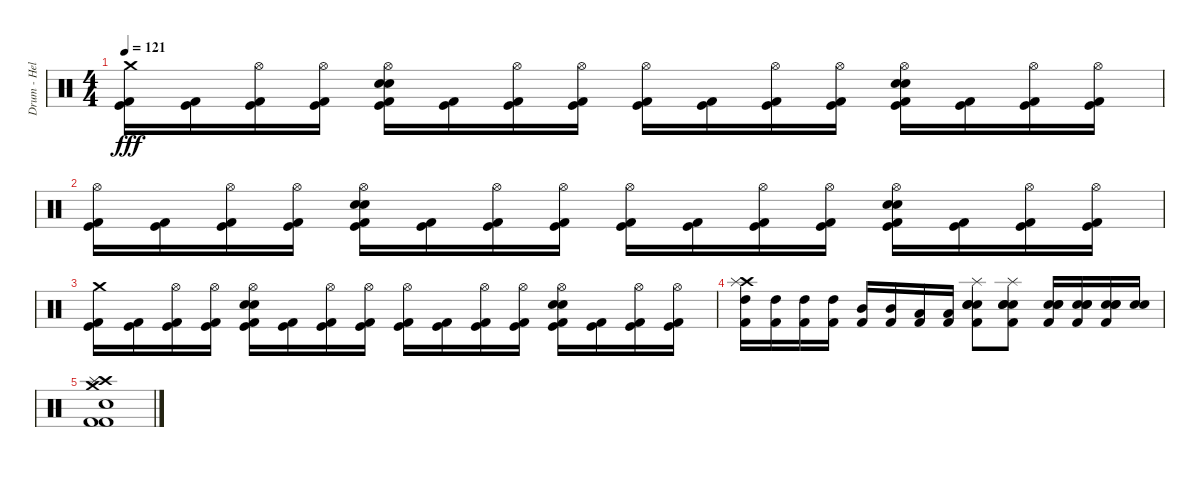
\track ("Drum - Hellhammer" "Drum - Hel") {instrument percussion}
\staff {score}
\articulation defaults
\ts (4 4)
\tempo 121
\clef neutral
\ks c
("Crash medium (hit)" "Kick (hit) 2" "Kick (hit)").16{dy fff} ("Kick (hit) 2" "Kick (hit)").16 ("Hi-Hat (open)" "Kick (hit) 2" "Kick (hit)").16 ("Hi-Hat (open)" "Kick (hit) 2" "Kick (hit)").16 ("Hi-Hat (open)" "Electric Snare (hit)" "Electric Snare (hit)" "Kick (hit) 2" "Kick (hit)").16 ("Kick (hit) 2" "Kick (hit)").16 ("Hi-Hat (open)" "Kick (hit) 2" "Kick (hit)").16 ("Hi-Hat (open)" "Kick (hit) 2" "Kick (hit)").16 ("Hi-Hat (open)" "Kick (hit) 2" "Kick (hit)").16 ("Kick (hit) 2" "Kick (hit)").16 ("Hi-Hat (open)" "Kick (hit) 2" "Kick (hit)").16 ("Hi-Hat (open)" "Kick (hit) 2" "Kick (hit)").16 ("Hi-Hat (open)" "Electric Snare (hit)" "Electric Snare (hit)" "Kick (hit) 2" "Kick (hit)").16 ("Kick (hit) 2" "Kick (hit)").16 ("Hi-Hat (open)" "Kick (hit) 2" "Kick (hit)").16 ("Hi-Hat (open)" "Kick (hit) 2" "Kick (hit)").16 |
("Hi-Hat (open)" "Kick (hit) 2" "Kick (hit)").16 ("Kick (hit) 2" "Kick (hit)").16 ("Hi-Hat (open)" "Kick (hit) 2" "Kick (hit)").16 ("Hi-Hat (open)" "Kick (hit) 2" "Kick (hit)").16 ("Hi-Hat (open)" "Electric Snare (hit)" "Electric Snare (hit)" "Kick (hit) 2" "Kick (hit)").16 ("Kick (hit) 2" "Kick (hit)").16 ("Hi-Hat (open)" "Kick (hit) 2" "Kick (hit)").16 ("Hi-Hat (open)" "Kick (hit) 2" "Kick (hit)").16 ("Hi-Hat (open)" "Kick (hit) 2" "Kick (hit)").16 ("Kick (hit) 2" "Kick (hit)").16 ("Hi-Hat (open)" "Kick (hit) 2" "Kick (hit)").16 ("Hi-Hat (open)" "Kick (hit) 2" "Kick (hit)").16 ("Hi-Hat (open)" "Electric Snare (hit)" "Electric Snare (hit)" "Kick (hit) 2" "Kick (hit)").16 ("Kick (hit) 2" "Kick (hit)").16 ("Hi-Hat (open)" "Kick (hit) 2" "Kick (hit)").16 ("Hi-Hat (open)" "Kick (hit) 2" "Kick (hit)").16 |
("Crash medium (hit)" "Kick (hit) 2" "Kick (hit)").16 ("Kick (hit) 2" "Kick (hit)").16 ("Hi-Hat (open)" "Kick (hit) 2" "Kick (hit)").16 ("Hi-Hat (open)" "Kick (hit) 2" "Kick (hit)").16 ("Hi-Hat (open)" "Electric Snare (hit)" "Electric Snare (hit)" "Kick (hit) 2" "Kick (hit)").16 ("Kick (hit) 2" "Kick (hit)").16 ("Hi-Hat (open)" "Kick (hit) 2" "Kick (hit)").16 ("Hi-Hat (open)" "Kick (hit) 2" "Kick (hit)").16 ("Hi-Hat (open)" "Kick (hit) 2" "Kick (hit)").16 ("Kick (hit) 2" "Kick (hit)").16 ("Hi-Hat (open)" "Kick (hit) 2" "Kick (hit)").16 ("Hi-Hat (open)" "Kick (hit) 2" "Kick (hit)").16 ("Hi-Hat (open)" "Electric Snare (hit)" "Electric Snare (hit)" "Kick (hit) 2" "Kick (hit)").16 ("Kick (hit) 2" "Kick (hit)").16 ("Hi-Hat (open)" "Kick (hit) 2" "Kick (hit)").16 ("Hi-Hat (open)" "Kick (hit) 2" "Kick (hit)").16 |
("High Tom (hit)" "Crash high (hit)" "Splash (hit)" "Kick (hit) 2").16 ("High Tom (hit)" "Kick (hit) 2").16 ("High Tom (hit)" "Kick (hit) 2").16 ("High Tom (hit)" "Kick (hit) 2").16 ("Mid Tom (hit)" "Kick (hit) 2").16 ("Mid Tom (hit)" "Kick (hit) 2").16 ("Low Tom (hit)" "Kick (hit) 2").16 ("Low Tom (hit)" "Kick (hit) 2").16 ("Splash (hit)" "Electric Snare (hit)" "Electric Snare (hit)" "Electric Snare (hit)" "Kick (hit) 2").8 ("Splash (hit)" "Electric Snare (hit)" "Electric Snare (hit)" "Electric Snare (hit)" "Kick (hit) 2").8 ("Electric Snare (hit)" "Electric Snare (hit)" "Electric Snare (hit)" "Kick (hit) 2").16 ("Electric Snare (hit)" "Electric Snare (hit)" "Electric Snare (hit)" "Kick (hit) 2").16 ("Electric Snare (hit)" "Electric Snare (hit)" "Electric Snare (hit)" "Kick (hit) 2").16 ("Electric Snare (hit)" "Electric Snare (hit)").16 |
("Crash medium (hit)" "Crash high (hit)" "Splash (hit)" "Electric Snare (hit)" "Kick (hit) 2" "Kick (hit) 2").1
